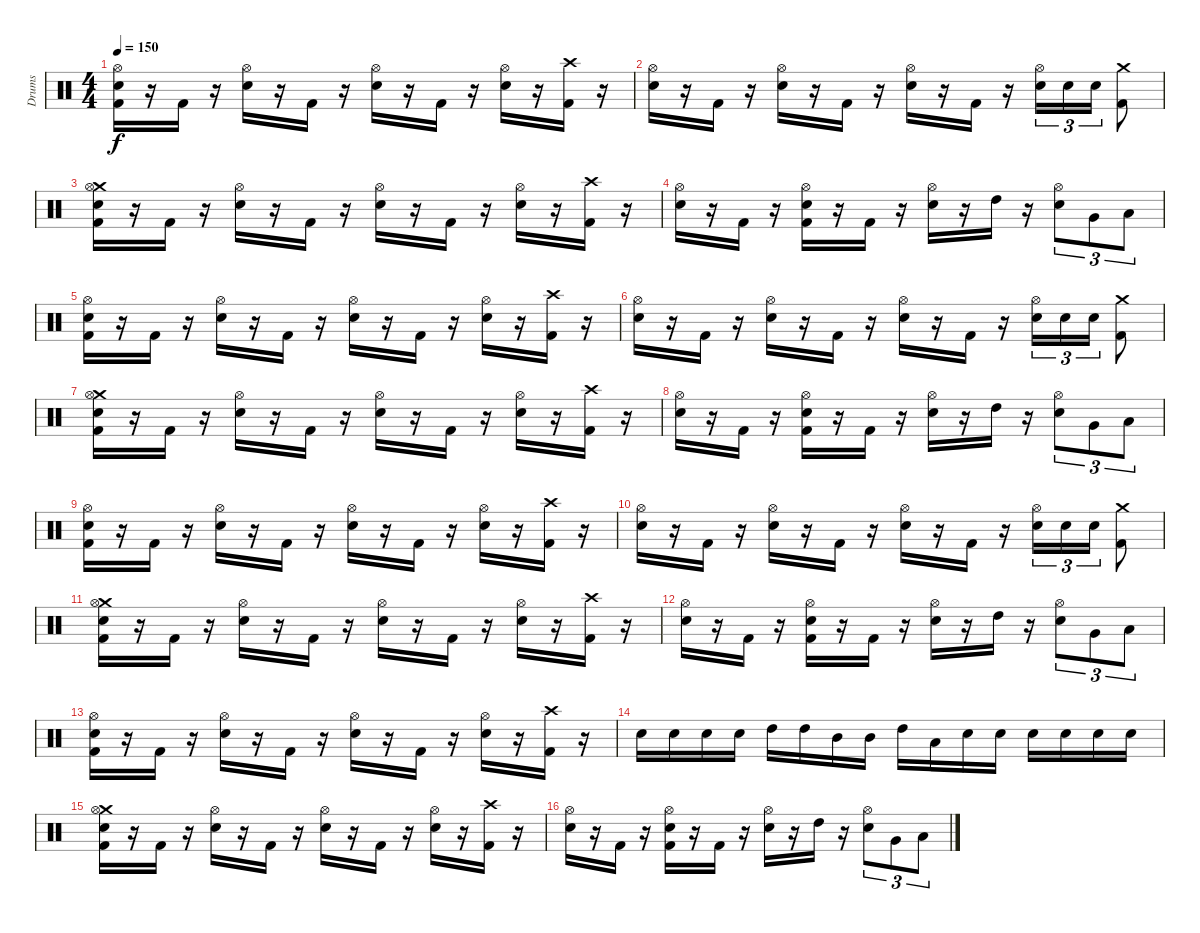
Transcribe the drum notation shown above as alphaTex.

\track ("Drums" "Drums") {instrument percussion}
\staff {score}
\articulation defaults
\ts (4 4)
\tempo 150
\clef neutral
\ks c
("Hi-Hat (open)" "Electric Snare (hit)" "Kick (hit) 2").16{dy f} r.16 "Kick (hit) 2".16 r.16 ("Hi-Hat (open)" "Electric Snare (hit)").16 r.16 "Kick (hit) 2".16 r.16 ("Hi-Hat (open)" "Electric Snare (hit)").16 r.16 "Kick (hit) 2".16 r.16 ("Hi-Hat (open)" "Electric Snare (hit)").16 r.16 ("Crash high (hit)" "Kick (hit) 2").16 r.16 |
("Hi-Hat (open)" "Electric Snare (hit)").16 r.16 "Kick (hit) 2".16 r.16 ("Hi-Hat (open)" "Electric Snare (hit)").16 r.16 "Kick (hit) 2".16 r.16 ("Hi-Hat (open)" "Electric Snare (hit)").16 r.16 "Kick (hit) 2".16 r.16 ("Hi-Hat (open)" "Electric Snare (hit)").16{tu (3 2)} "Electric Snare (hit)".16{tu (3 2)} "Electric Snare (hit)".16{tu (3 2)} ("Crash medium (hit)" "Kick (hit) 2").8 |
("Crash medium (hit)" "Hi-Hat (open)" "Electric Snare (hit)" "Kick (hit) 2").16 r.16 "Kick (hit) 2".16 r.16 ("Hi-Hat (open)" "Electric Snare (hit)").16 r.16 "Kick (hit) 2".16 r.16 ("Hi-Hat (open)" "Electric Snare (hit)").16 r.16 "Kick (hit) 2".16 r.16 ("Hi-Hat (open)" "Electric Snare (hit)").16 r.16 ("Crash high (hit)" "Kick (hit) 2").16 r.16 |
("Hi-Hat (open)" "Electric Snare (hit)").16 r.16 "Kick (hit) 2".16 r.16 ("Hi-Hat (open)" "Electric Snare (hit)" "Kick (hit) 2").16 r.16 "Kick (hit) 2".16 r.16 ("Hi-Hat (open)" "Electric Snare (hit)").16 r.16 "High Tom (hit)".16 r.16 ("Hi-Hat (open)" "Electric Snare (hit)").8{tu (3 2)} "Very Low Tom (hit)".8{tu (3 2)} "Low Floor Tom (hit)".8{tu (3 2)} |
("Hi-Hat (open)" "Electric Snare (hit)" "Kick (hit) 2").16 r.16 "Kick (hit) 2".16 r.16 ("Hi-Hat (open)" "Electric Snare (hit)").16 r.16 "Kick (hit) 2".16 r.16 ("Hi-Hat (open)" "Electric Snare (hit)").16 r.16 "Kick (hit) 2".16 r.16 ("Hi-Hat (open)" "Electric Snare (hit)").16 r.16 ("Crash high (hit)" "Kick (hit) 2").16 r.16 |
("Hi-Hat (open)" "Electric Snare (hit)").16 r.16 "Kick (hit) 2".16 r.16 ("Hi-Hat (open)" "Electric Snare (hit)").16 r.16 "Kick (hit) 2".16 r.16 ("Hi-Hat (open)" "Electric Snare (hit)").16 r.16 "Kick (hit) 2".16 r.16 ("Hi-Hat (open)" "Electric Snare (hit)").16{tu (3 2)} "Electric Snare (hit)".16{tu (3 2)} "Electric Snare (hit)".16{tu (3 2)} ("Crash medium (hit)" "Kick (hit) 2").8 |
("Crash medium (hit)" "Hi-Hat (open)" "Electric Snare (hit)" "Kick (hit) 2").16 r.16 "Kick (hit) 2".16 r.16 ("Hi-Hat (open)" "Electric Snare (hit)").16 r.16 "Kick (hit) 2".16 r.16 ("Hi-Hat (open)" "Electric Snare (hit)").16 r.16 "Kick (hit) 2".16 r.16 ("Hi-Hat (open)" "Electric Snare (hit)").16 r.16 ("Crash high (hit)" "Kick (hit) 2").16 r.16 |
("Hi-Hat (open)" "Electric Snare (hit)").16 r.16 "Kick (hit) 2".16 r.16 ("Hi-Hat (open)" "Electric Snare (hit)" "Kick (hit) 2").16 r.16 "Kick (hit) 2".16 r.16 ("Hi-Hat (open)" "Electric Snare (hit)").16 r.16 "High Tom (hit)".16 r.16 ("Hi-Hat (open)" "Electric Snare (hit)").8{tu (3 2)} "Very Low Tom (hit)".8{tu (3 2)} "Low Floor Tom (hit)".8{tu (3 2)} |
("Hi-Hat (open)" "Electric Snare (hit)" "Kick (hit) 2").16 r.16 "Kick (hit) 2".16 r.16 ("Hi-Hat (open)" "Electric Snare (hit)").16 r.16 "Kick (hit) 2".16 r.16 ("Hi-Hat (open)" "Electric Snare (hit)").16 r.16 "Kick (hit) 2".16 r.16 ("Hi-Hat (open)" "Electric Snare (hit)").16 r.16 ("Crash high (hit)" "Kick (hit) 2").16 r.16 |
("Hi-Hat (open)" "Electric Snare (hit)").16 r.16 "Kick (hit) 2".16 r.16 ("Hi-Hat (open)" "Electric Snare (hit)").16 r.16 "Kick (hit) 2".16 r.16 ("Hi-Hat (open)" "Electric Snare (hit)").16 r.16 "Kick (hit) 2".16 r.16 ("Hi-Hat (open)" "Electric Snare (hit)").16{tu (3 2)} "Electric Snare (hit)".16{tu (3 2)} "Electric Snare (hit)".16{tu (3 2)} ("Crash medium (hit)" "Kick (hit) 2").8 |
("Crash medium (hit)" "Hi-Hat (open)" "Electric Snare (hit)" "Kick (hit) 2").16 r.16 "Kick (hit) 2".16 r.16 ("Hi-Hat (open)" "Electric Snare (hit)").16 r.16 "Kick (hit) 2".16 r.16 ("Hi-Hat (open)" "Electric Snare (hit)").16 r.16 "Kick (hit) 2".16 r.16 ("Hi-Hat (open)" "Electric Snare (hit)").16 r.16 ("Crash high (hit)" "Kick (hit) 2").16 r.16 |
("Hi-Hat (open)" "Electric Snare (hit)").16 r.16 "Kick (hit) 2".16 r.16 ("Hi-Hat (open)" "Electric Snare (hit)" "Kick (hit) 2").16 r.16 "Kick (hit) 2".16 r.16 ("Hi-Hat (open)" "Electric Snare (hit)").16 r.16 "High Tom (hit)".16 r.16 ("Hi-Hat (open)" "Electric Snare (hit)").8{tu (3 2)} "Very Low Tom (hit)".8{tu (3 2)} "Low Floor Tom (hit)".8{tu (3 2)} |
("Hi-Hat (open)" "Electric Snare (hit)" "Kick (hit) 2").16 r.16 "Kick (hit) 2".16 r.16 ("Hi-Hat (open)" "Electric Snare (hit)").16 r.16 "Kick (hit) 2".16 r.16 ("Hi-Hat (open)" "Electric Snare (hit)").16 r.16 "Kick (hit) 2".16 r.16 ("Hi-Hat (open)" "Electric Snare (hit)").16 r.16 ("Crash high (hit)" "Kick (hit) 2").16 r.16 |
"Electric Snare (hit)".16 "Electric Snare (hit)".16 "Electric Snare (hit)".16 "Electric Snare (hit)".16 "High Tom (hit)".16 "High Tom (hit)".16 "Mid Tom (hit)".16 "Mid Tom (hit)".16 "High Tom (hit)".16 "Low Tom (hit)".16 "Electric Snare (hit)".16 "Electric Snare (hit)".16 "Electric Snare (hit)".16 "Electric Snare (hit)".16 "Electric Snare (hit)".16 "Electric Snare (hit)".16 |
("Crash medium (hit)" "Hi-Hat (open)" "Electric Snare (hit)" "Kick (hit) 2").16 r.16 "Kick (hit) 2".16 r.16 ("Hi-Hat (open)" "Electric Snare (hit)").16 r.16 "Kick (hit) 2".16 r.16 ("Hi-Hat (open)" "Electric Snare (hit)").16 r.16 "Kick (hit) 2".16 r.16 ("Hi-Hat (open)" "Electric Snare (hit)").16 r.16 ("Crash high (hit)" "Kick (hit) 2").16 r.16 |
("Hi-Hat (open)" "Electric Snare (hit)").16 r.16 "Kick (hit) 2".16 r.16 ("Hi-Hat (open)" "Electric Snare (hit)" "Kick (hit) 2").16 r.16 "Kick (hit) 2".16 r.16 ("Hi-Hat (open)" "Electric Snare (hit)").16 r.16 "High Tom (hit)".16 r.16 ("Hi-Hat (open)" "Electric Snare (hit)").8{tu (3 2)} "Very Low Tom (hit)".8{tu (3 2)} "Low Floor Tom (hit)".8{tu (3 2)}
